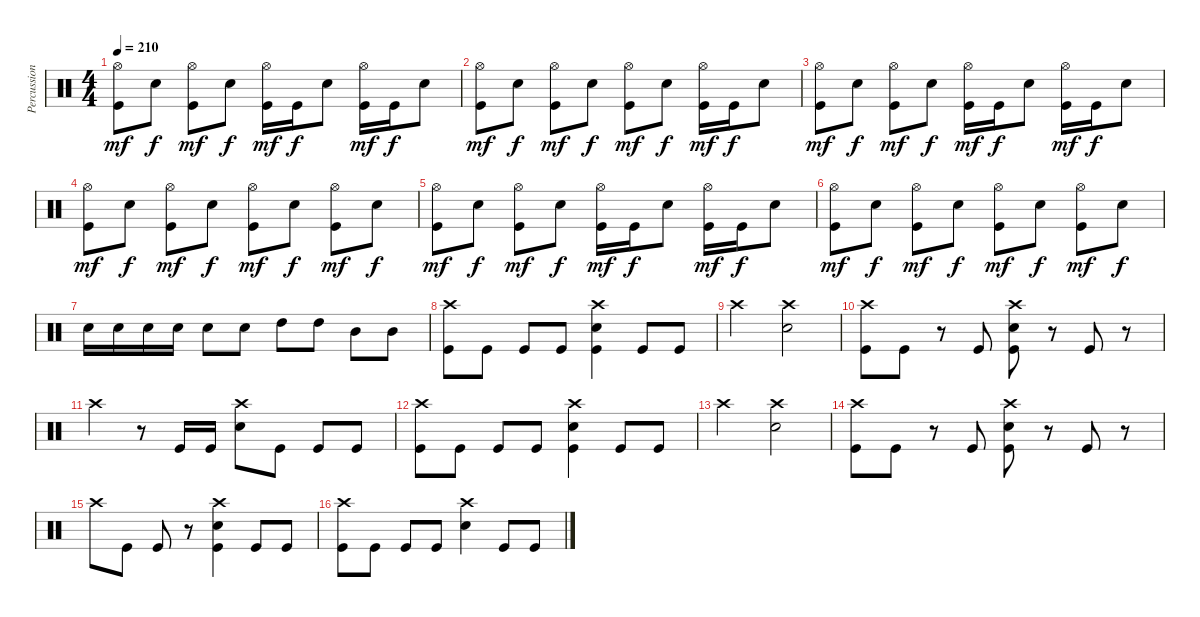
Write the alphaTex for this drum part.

\track ("Percussion" "Percussion") {instrument percussion}
\staff {score}
\articulation defaults
\ts (4 4)
\tempo 210
\clef neutral
\ks c
("Hi-Hat (open)" "Kick (hit)").8{dy mf} "Snare (hit) 2".8{dy f} ("Hi-Hat (open)" "Kick (hit)").8{dy mf} "Snare (hit) 2".8{dy f} ("Hi-Hat (open)" "Kick (hit)").16{dy mf} "Kick (hit)".16{dy f} "Snare (hit) 2".8 ("Hi-Hat (open)" "Kick (hit)").16{dy mf} "Kick (hit)".16{dy f} "Snare (hit) 2".8 |
("Hi-Hat (open)" "Kick (hit)").8{dy mf} "Snare (hit) 2".8{dy f} ("Hi-Hat (open)" "Kick (hit)").8{dy mf} "Snare (hit) 2".8{dy f} ("Hi-Hat (open)" "Kick (hit)").8{dy mf} "Snare (hit) 2".8{dy f} ("Hi-Hat (open)" "Kick (hit)").16{dy mf} "Kick (hit)".16{dy f} "Snare (hit) 2".8 |
("Hi-Hat (open)" "Kick (hit)").8{dy mf} "Snare (hit) 2".8{dy f} ("Hi-Hat (open)" "Kick (hit)").8{dy mf} "Snare (hit) 2".8{dy f} ("Hi-Hat (open)" "Kick (hit)").16{dy mf} "Kick (hit)".16{dy f} "Snare (hit) 2".8 ("Hi-Hat (open)" "Kick (hit)").16{dy mf} "Kick (hit)".16{dy f} "Snare (hit) 2".8 |
("Hi-Hat (open)" "Kick (hit)").8{dy mf} "Snare (hit) 2".8{dy f} ("Hi-Hat (open)" "Kick (hit)").8{dy mf} "Snare (hit) 2".8{dy f} ("Hi-Hat (open)" "Kick (hit)").8{dy mf} "Snare (hit) 2".8{dy f} ("Hi-Hat (open)" "Kick (hit)").8{dy mf} "Snare (hit) 2".8{dy f} |
("Hi-Hat (open)" "Kick (hit)").8{dy mf} "Snare (hit) 2".8{dy f} ("Hi-Hat (open)" "Kick (hit)").8{dy mf} "Snare (hit) 2".8{dy f} ("Hi-Hat (open)" "Kick (hit)").16{dy mf} "Kick (hit)".16{dy f} "Snare (hit) 2".8 ("Hi-Hat (open)" "Kick (hit)").16{dy mf} "Kick (hit)".16{dy f} "Snare (hit) 2".8 |
("Hi-Hat (open)" "Kick (hit)").8{dy mf} "Snare (hit) 2".8{dy f} ("Hi-Hat (open)" "Kick (hit)").8{dy mf} "Snare (hit) 2".8{dy f} ("Hi-Hat (open)" "Kick (hit)").8{dy mf} "Snare (hit) 2".8{dy f} ("Hi-Hat (open)" "Kick (hit)").8{dy mf} "Snare (hit) 2".8{dy f} |
"Snare (hit) 2".16 "Snare (hit) 2".16 "Snare (hit) 2".16 "Snare (hit) 2".16 "Snare (hit) 2".8 "Snare (hit) 2".8 "High Tom (hit)".8 "High Tom (hit)".8 "Mid Tom (hit)".8 "Mid Tom (hit)".8 |
("Crash high (hit)" "Kick (hit)").8 "Kick (hit)".8 "Kick (hit)".8 "Kick (hit)".8 ("Crash high (hit)" "Snare (hit) 2" "Kick (hit)").4 "Kick (hit)".8 "Kick (hit)".8 |
"Crash high (hit)".2 ("Crash high (hit)" "Snare (hit) 2").2 |
("Crash high (hit)" "Kick (hit)").8 "Kick (hit)".8 r.8 "Kick (hit)".8 ("Crash high (hit)" "Snare (hit) 2" "Kick (hit)").8 r.8 "Kick (hit)".8 r.8 |
"Crash high (hit)".4 r.8 "Kick (hit)".16 "Kick (hit)".16 ("Crash high (hit)" "Snare (hit) 2").8 "Kick (hit)".8 "Kick (hit)".8 "Kick (hit)".8 |
("Crash high (hit)" "Kick (hit)").8 "Kick (hit)".8 "Kick (hit)".8 "Kick (hit)".8 ("Crash high (hit)" "Snare (hit) 2" "Kick (hit)").4 "Kick (hit)".8 "Kick (hit)".8 |
"Crash high (hit)".2 ("Crash high (hit)" "Snare (hit) 2").2 |
("Crash high (hit)" "Kick (hit)").8 "Kick (hit)".8 r.8 "Kick (hit)".8 ("Crash high (hit)" "Snare (hit) 2" "Kick (hit)").8 r.8 "Kick (hit)".8 r.8 |
"Crash high (hit)".8 "Kick (hit)".8 "Kick (hit)".8 r.8 ("Crash high (hit)" "Snare (hit) 2" "Kick (hit)").4 "Kick (hit)".8 "Kick (hit)".8 |
("Crash high (hit)" "Kick (hit)").8 "Kick (hit)".8 "Kick (hit)".8 "Kick (hit)".8 ("Crash high (hit)" "Snare (hit) 2").4 "Kick (hit)".8 "Kick (hit)".8
